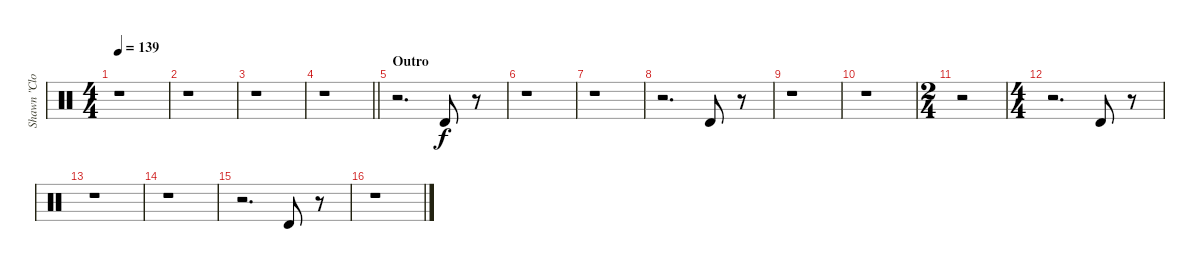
\track ("Shawn \"Clown\" Crahan & Chris Fehn" "Shawn \"Clo") {instrument percussion}
\staff {score}
\articulation defaults
\ts (4 4)
\tempo 139
\clef neutral
\ks c
r.1{dy f} |
r.1 |
r.1 |
\barLineRight lightlight
r.1 |
\section ("" "Outro")
r.2{d} "Timbale high (hit)".8 r.8 |
r.1 |
r.1 |
r.2{d} "Timbale high (hit)".8 r.8 |
r.1 |
r.1 |
\ts (2 4)
r.2 |
\ts (4 4)
r.2{d} "Timbale high (hit)".8 r.8 |
r.1 |
r.1 |
r.2{d} "Timbale high (hit)".8 r.8 |
r.1
